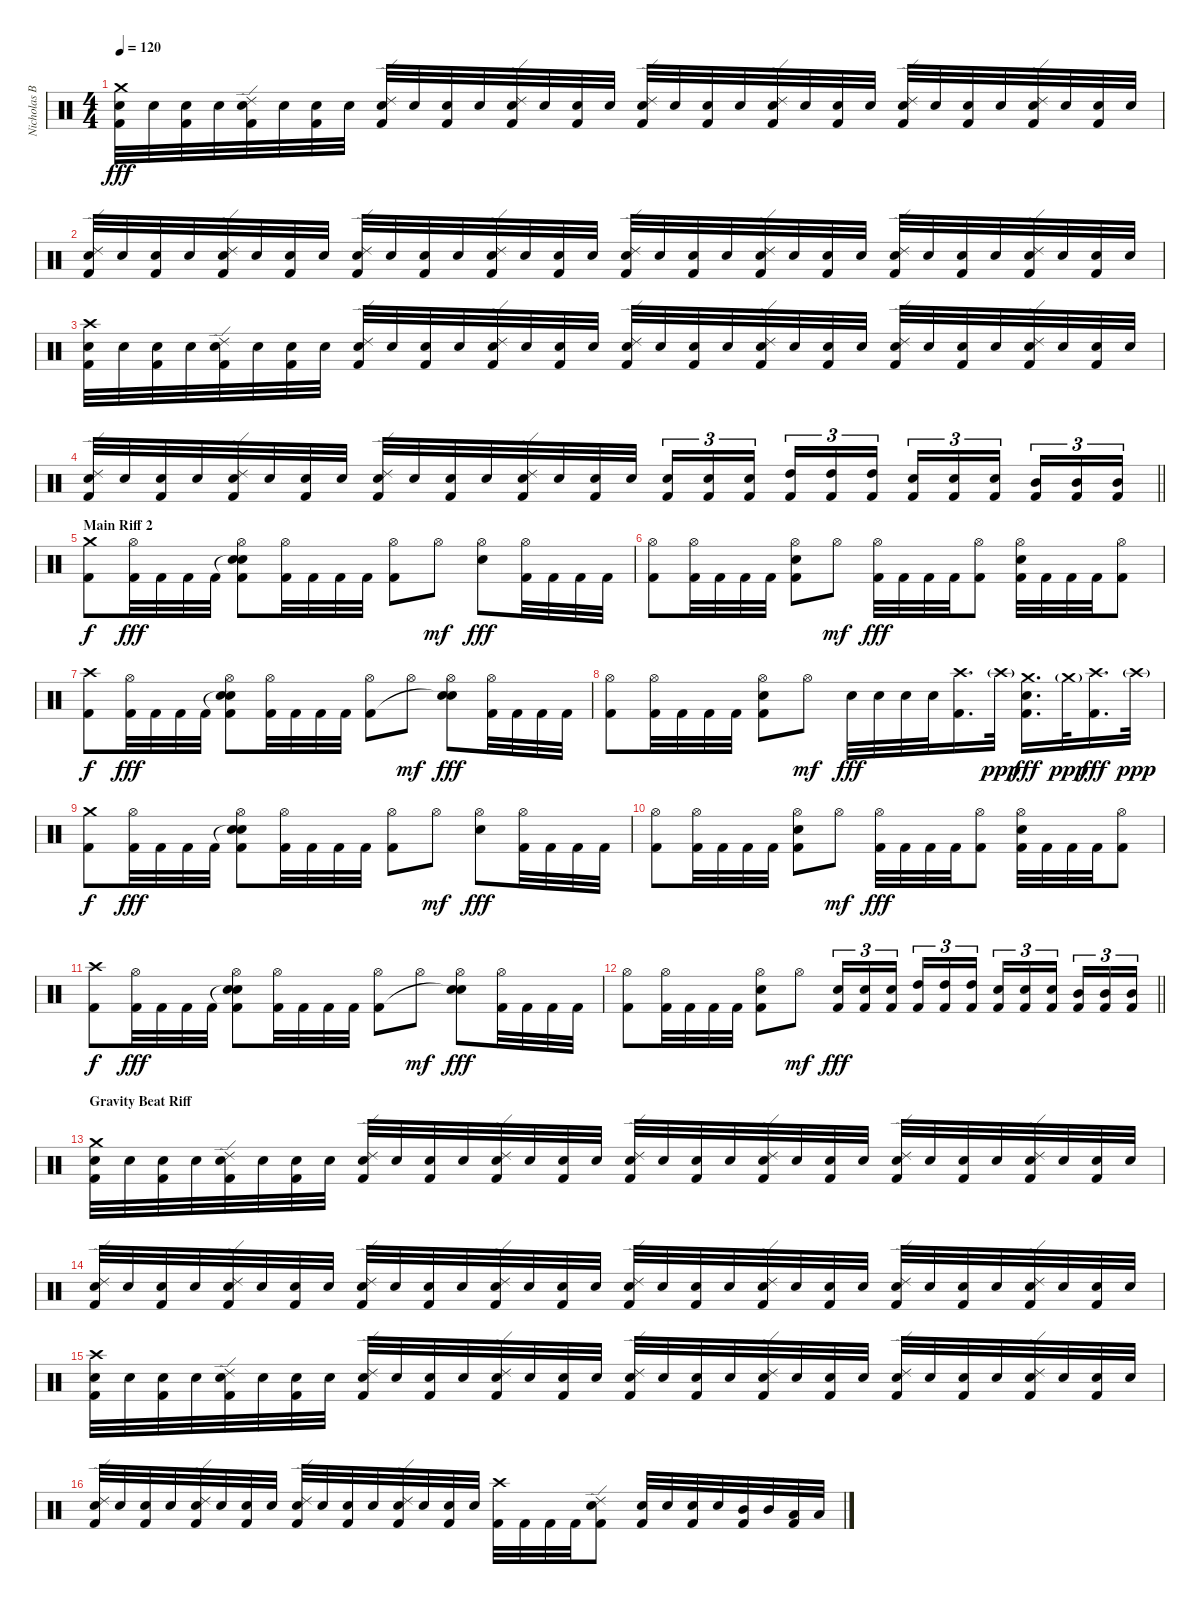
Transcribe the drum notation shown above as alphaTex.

\track ("Nicholas Barker" "Nicholas B") {instrument percussion}
\staff {score}
\articulation defaults
\ts (4 4)
\tempo 120
\clef neutral
\ks c
("Crash medium (hit)" "Snare (hit) 2" "Kick (hit) 2").32{dy fff} "Snare (hit) 2".32 ("Snare (hit) 2" "Kick (hit) 2").32 "Snare (hit) 2".32 ("Ride (edge) 2" "Snare (hit) 2" "Kick (hit) 2").32 "Snare (hit) 2".32 ("Snare (hit) 2" "Kick (hit) 2").32 "Snare (hit) 2".32 ("Ride (edge) 2" "Snare (hit) 2" "Kick (hit) 2").32 "Snare (hit) 2".32 ("Snare (hit) 2" "Kick (hit) 2").32 "Snare (hit) 2".32 ("Ride (edge) 2" "Snare (hit) 2" "Kick (hit) 2").32 "Snare (hit) 2".32 ("Snare (hit) 2" "Kick (hit) 2").32 "Snare (hit) 2".32 ("Ride (edge) 2" "Snare (hit) 2" "Kick (hit) 2").32 "Snare (hit) 2".32 ("Snare (hit) 2" "Kick (hit) 2").32 "Snare (hit) 2".32 ("Ride (edge) 2" "Snare (hit) 2" "Kick (hit) 2").32 "Snare (hit) 2".32 ("Snare (hit) 2" "Kick (hit) 2").32 "Snare (hit) 2".32 ("Ride (edge) 2" "Snare (hit) 2" "Kick (hit) 2").32 "Snare (hit) 2".32 ("Snare (hit) 2" "Kick (hit) 2").32 "Snare (hit) 2".32 ("Ride (edge) 2" "Snare (hit) 2" "Kick (hit) 2").32 "Snare (hit) 2".32 ("Snare (hit) 2" "Kick (hit) 2").32 "Snare (hit) 2".32 |
("Ride (edge) 2" "Snare (hit) 2" "Kick (hit) 2").32 "Snare (hit) 2".32 ("Snare (hit) 2" "Kick (hit) 2").32 "Snare (hit) 2".32 ("Ride (edge) 2" "Snare (hit) 2" "Kick (hit) 2").32 "Snare (hit) 2".32 ("Snare (hit) 2" "Kick (hit) 2").32 "Snare (hit) 2".32 ("Ride (edge) 2" "Snare (hit) 2" "Kick (hit) 2").32 "Snare (hit) 2".32 ("Snare (hit) 2" "Kick (hit) 2").32 "Snare (hit) 2".32 ("Ride (edge) 2" "Snare (hit) 2" "Kick (hit) 2").32 "Snare (hit) 2".32 ("Snare (hit) 2" "Kick (hit) 2").32 "Snare (hit) 2".32 ("Ride (edge) 2" "Snare (hit) 2" "Kick (hit) 2").32 "Snare (hit) 2".32 ("Snare (hit) 2" "Kick (hit) 2").32 "Snare (hit) 2".32 ("Ride (edge) 2" "Snare (hit) 2" "Kick (hit) 2").32 "Snare (hit) 2".32 ("Snare (hit) 2" "Kick (hit) 2").32 "Snare (hit) 2".32 ("Ride (edge) 2" "Snare (hit) 2" "Kick (hit) 2").32 "Snare (hit) 2".32 ("Snare (hit) 2" "Kick (hit) 2").32 "Snare (hit) 2".32 ("Ride (edge) 2" "Snare (hit) 2" "Kick (hit) 2").32 "Snare (hit) 2".32 ("Snare (hit) 2" "Kick (hit) 2").32 "Snare (hit) 2".32 |
("Crash high (hit)" "Snare (hit) 2" "Kick (hit) 2").32 "Snare (hit) 2".32 ("Snare (hit) 2" "Kick (hit) 2").32 "Snare (hit) 2".32 ("Ride (edge) 2" "Snare (hit) 2" "Kick (hit) 2").32 "Snare (hit) 2".32 ("Snare (hit) 2" "Kick (hit) 2").32 "Snare (hit) 2".32 ("Ride (edge) 2" "Snare (hit) 2" "Kick (hit) 2").32 "Snare (hit) 2".32 ("Snare (hit) 2" "Kick (hit) 2").32 "Snare (hit) 2".32 ("Ride (edge) 2" "Snare (hit) 2" "Kick (hit) 2").32 "Snare (hit) 2".32 ("Snare (hit) 2" "Kick (hit) 2").32 "Snare (hit) 2".32 ("Ride (edge) 2" "Snare (hit) 2" "Kick (hit) 2").32 "Snare (hit) 2".32 ("Snare (hit) 2" "Kick (hit) 2").32 "Snare (hit) 2".32 ("Ride (edge) 2" "Snare (hit) 2" "Kick (hit) 2").32 "Snare (hit) 2".32 ("Snare (hit) 2" "Kick (hit) 2").32 "Snare (hit) 2".32 ("Ride (edge) 2" "Snare (hit) 2" "Kick (hit) 2").32 "Snare (hit) 2".32 ("Snare (hit) 2" "Kick (hit) 2").32 "Snare (hit) 2".32 ("Ride (edge) 2" "Snare (hit) 2" "Kick (hit) 2").32 "Snare (hit) 2".32 ("Snare (hit) 2" "Kick (hit) 2").32 "Snare (hit) 2".32 |
\barLineRight lightlight
("Ride (edge) 2" "Snare (hit) 2" "Kick (hit) 2").32 "Snare (hit) 2".32 ("Snare (hit) 2" "Kick (hit) 2").32 "Snare (hit) 2".32 ("Ride (edge) 2" "Snare (hit) 2" "Kick (hit) 2").32 "Snare (hit) 2".32 ("Snare (hit) 2" "Kick (hit) 2").32 "Snare (hit) 2".32 ("Ride (edge) 2" "Snare (hit) 2" "Kick (hit) 2").32 "Snare (hit) 2".32 ("Snare (hit) 2" "Kick (hit) 2").32 "Snare (hit) 2".32 ("Ride (edge) 2" "Snare (hit) 2" "Kick (hit) 2").32 "Snare (hit) 2".32 ("Snare (hit) 2" "Kick (hit) 2").32 "Snare (hit) 2".32 ("Snare (hit) 2" "Kick (hit) 2").16{tu (3 2)} ("Snare (hit) 2" "Kick (hit) 2").16{tu (3 2)} ("Snare (hit) 2" "Kick (hit) 2").16{tu (3 2) beam splitsecondary} ("High Tom (hit)" "Kick (hit) 2").16{tu (3 2)} ("High Tom (hit)" "Kick (hit) 2").16{tu (3 2)} ("High Tom (hit)" "Kick (hit) 2").16{tu (3 2)} ("Snare (hit) 2" "Kick (hit) 2").16{tu (3 2)} ("Snare (hit) 2" "Kick (hit) 2").16{tu (3 2)} ("Snare (hit) 2" "Kick (hit) 2").16{tu (3 2) beam splitsecondary} ("Mid Tom (hit)" "Kick (hit) 2").16{tu (3 2)} ("Mid Tom (hit)" "Kick (hit) 2").16{tu (3 2)} ("Mid Tom (hit)" "Kick (hit) 2").16{tu (3 2)} |
\section ("" "Main Riff 2")
("Crash medium (hit)" "Kick (hit) 2").8{dy f} ("Hi-Hat (open)" "Kick (hit) 2").32{dy fff} "Kick (hit) 2".32 "Kick (hit) 2".32 "Kick (hit) 2".32 ("Snare (hit)"{t} "Hi-Hat (open)" "Snare (hit) 2" "Kick (hit) 2").8 ("Hi-Hat (open)" "Kick (hit) 2").32 "Kick (hit) 2".32 "Kick (hit) 2".32 "Kick (hit) 2".32 ("Hi-Hat (open)" "Kick (hit) 2").8 "Hi-Hat (open)".8{dy mf} ("Hi-Hat (open)" "Snare (hit) 2").8{dy fff} ("Hi-Hat (open)" "Kick (hit) 2").32 "Kick (hit) 2".32 "Kick (hit) 2".32 "Kick (hit) 2".32 |
("Hi-Hat (open)" "Kick (hit) 2").8 ("Hi-Hat (open)" "Kick (hit) 2").32 "Kick (hit) 2".32 "Kick (hit) 2".32 "Kick (hit) 2".32 ("Hi-Hat (open)" "Snare (hit) 2" "Kick (hit) 2").8 "Hi-Hat (open)".8{dy mf} ("Hi-Hat (open)" "Kick (hit) 2").32{dy fff} "Kick (hit) 2".32 "Kick (hit) 2".32 "Kick (hit) 2".32 ("Hi-Hat (open)" "Kick (hit) 2").8 ("Hi-Hat (open)" "Snare (hit) 2" "Kick (hit) 2").32 "Kick (hit) 2".32 "Kick (hit) 2".32 "Kick (hit) 2".32 ("Hi-Hat (open)" "Kick (hit) 2").8 |
("Crash high (hit)" "Kick (hit) 2").8{dy f} ("Hi-Hat (open)" "Kick (hit) 2").32{dy fff} "Kick (hit) 2".32 "Kick (hit) 2".32 "Kick (hit) 2".32 ("Snare (hit)"{t} "Hi-Hat (open)" "Snare (hit) 2" "Kick (hit) 2").8 ("Hi-Hat (open)" "Kick (hit) 2").32 "Kick (hit) 2".32 "Kick (hit) 2".32 "Kick (hit) 2".32 ("Hi-Hat (open)" "Kick (hit) 2").8 "Hi-Hat (open)".8{dy mf} ("Hi-Hat (open)" "Snare (hit)"{t} "Snare (hit) 2").8{dy fff} ("Hi-Hat (open)" "Kick (hit) 2").32 "Kick (hit) 2".32 "Kick (hit) 2".32 "Kick (hit) 2".32 |
("Hi-Hat (open)" "Kick (hit) 2").8 ("Hi-Hat (open)" "Kick (hit) 2").32 "Kick (hit) 2".32 "Kick (hit) 2".32 "Kick (hit) 2".32 ("Hi-Hat (open)" "Snare (hit) 2" "Kick (hit) 2").8 "Hi-Hat (open)".8{dy mf} "Snare (hit) 2".32{dy fff} "Snare (hit) 2".32 "Snare (hit) 2".32 "Snare (hit) 2".32 ("Crash high (hit)" "Kick (hit) 2").16{d} "Crash high (hit)"{g}.32{dy ppp} ("Crash medium (hit)" "Snare (hit) 2" "Kick (hit) 2").16{d dy fff} "Crash medium (hit)"{g}.32{dy ppp} ("Crash high (hit)" "Kick (hit) 2").16{d dy fff} "Crash high (hit)"{g}.32{dy ppp} |
("Crash medium (hit)" "Kick (hit) 2").8{dy f} ("Hi-Hat (open)" "Kick (hit) 2").32{dy fff} "Kick (hit) 2".32 "Kick (hit) 2".32 "Kick (hit) 2".32 ("Snare (hit)"{t} "Hi-Hat (open)" "Snare (hit) 2" "Kick (hit) 2").8 ("Hi-Hat (open)" "Kick (hit) 2").32 "Kick (hit) 2".32 "Kick (hit) 2".32 "Kick (hit) 2".32 ("Hi-Hat (open)" "Kick (hit) 2").8 "Hi-Hat (open)".8{dy mf} ("Hi-Hat (open)" "Snare (hit) 2").8{dy fff} ("Hi-Hat (open)" "Kick (hit) 2").32 "Kick (hit) 2".32 "Kick (hit) 2".32 "Kick (hit) 2".32 |
("Hi-Hat (open)" "Kick (hit) 2").8 ("Hi-Hat (open)" "Kick (hit) 2").32 "Kick (hit) 2".32 "Kick (hit) 2".32 "Kick (hit) 2".32 ("Hi-Hat (open)" "Snare (hit) 2" "Kick (hit) 2").8 "Hi-Hat (open)".8{dy mf} ("Hi-Hat (open)" "Kick (hit) 2").32{dy fff} "Kick (hit) 2".32 "Kick (hit) 2".32 "Kick (hit) 2".32 ("Hi-Hat (open)" "Kick (hit) 2").8 ("Hi-Hat (open)" "Snare (hit) 2" "Kick (hit) 2").32 "Kick (hit) 2".32 "Kick (hit) 2".32 "Kick (hit) 2".32 ("Hi-Hat (open)" "Kick (hit) 2").8 |
("Crash high (hit)" "Kick (hit) 2").8{dy f} ("Hi-Hat (open)" "Kick (hit) 2").32{dy fff} "Kick (hit) 2".32 "Kick (hit) 2".32 "Kick (hit) 2".32 ("Snare (hit)"{t} "Hi-Hat (open)" "Snare (hit) 2" "Kick (hit) 2").8 ("Hi-Hat (open)" "Kick (hit) 2").32 "Kick (hit) 2".32 "Kick (hit) 2".32 "Kick (hit) 2".32 ("Hi-Hat (open)" "Kick (hit) 2").8 "Hi-Hat (open)".8{dy mf} ("Hi-Hat (open)" "Snare (hit)"{t} "Snare (hit) 2").8{dy fff} ("Hi-Hat (open)" "Kick (hit) 2").32 "Kick (hit) 2".32 "Kick (hit) 2".32 "Kick (hit) 2".32 |
\barLineRight lightlight
("Hi-Hat (open)" "Kick (hit) 2").8 ("Hi-Hat (open)" "Kick (hit) 2").32 "Kick (hit) 2".32 "Kick (hit) 2".32 "Kick (hit) 2".32 ("Hi-Hat (open)" "Snare (hit) 2" "Kick (hit) 2").8 "Hi-Hat (open)".8{dy mf} ("Snare (hit) 2" "Kick (hit) 2").16{tu (3 2) dy fff} ("Snare (hit) 2" "Kick (hit) 2").16{tu (3 2)} ("Snare (hit) 2" "Kick (hit) 2").16{tu (3 2) beam splitsecondary} ("High Tom (hit)" "Kick (hit) 2").16{tu (3 2)} ("High Tom (hit)" "Kick (hit) 2").16{tu (3 2)} ("High Tom (hit)" "Kick (hit) 2").16{tu (3 2)} ("Snare (hit) 2" "Kick (hit) 2").16{tu (3 2)} ("Snare (hit) 2" "Kick (hit) 2").16{tu (3 2)} ("Snare (hit) 2" "Kick (hit) 2").16{tu (3 2) beam splitsecondary} ("Mid Tom (hit)" "Kick (hit) 2").16{tu (3 2)} ("Mid Tom (hit)" "Kick (hit) 2").16{tu (3 2)} ("Mid Tom (hit)" "Kick (hit) 2").16{tu (3 2)} |
\section ("" "Gravity Beat Riff")
("Crash medium (hit)" "Snare (hit) 2" "Kick (hit) 2").32 "Snare (hit) 2".32 ("Snare (hit) 2" "Kick (hit) 2").32 "Snare (hit) 2".32 ("Ride (edge) 2" "Snare (hit) 2" "Kick (hit) 2").32 "Snare (hit) 2".32 ("Snare (hit) 2" "Kick (hit) 2").32 "Snare (hit) 2".32 ("Ride (edge) 2" "Snare (hit) 2" "Kick (hit) 2").32 "Snare (hit) 2".32 ("Snare (hit) 2" "Kick (hit) 2").32 "Snare (hit) 2".32 ("Ride (edge) 2" "Snare (hit) 2" "Kick (hit) 2").32 "Snare (hit) 2".32 ("Snare (hit) 2" "Kick (hit) 2").32 "Snare (hit) 2".32 ("Ride (edge) 2" "Snare (hit) 2" "Kick (hit) 2").32 "Snare (hit) 2".32 ("Snare (hit) 2" "Kick (hit) 2").32 "Snare (hit) 2".32 ("Ride (edge) 2" "Snare (hit) 2" "Kick (hit) 2").32 "Snare (hit) 2".32 ("Snare (hit) 2" "Kick (hit) 2").32 "Snare (hit) 2".32 ("Ride (edge) 2" "Snare (hit) 2" "Kick (hit) 2").32 "Snare (hit) 2".32 ("Snare (hit) 2" "Kick (hit) 2").32 "Snare (hit) 2".32 ("Ride (edge) 2" "Snare (hit) 2" "Kick (hit) 2").32 "Snare (hit) 2".32 ("Snare (hit) 2" "Kick (hit) 2").32 "Snare (hit) 2".32 |
("Ride (edge) 2" "Snare (hit) 2" "Kick (hit) 2").32 "Snare (hit) 2".32 ("Snare (hit) 2" "Kick (hit) 2").32 "Snare (hit) 2".32 ("Ride (edge) 2" "Snare (hit) 2" "Kick (hit) 2").32 "Snare (hit) 2".32 ("Snare (hit) 2" "Kick (hit) 2").32 "Snare (hit) 2".32 ("Ride (edge) 2" "Snare (hit) 2" "Kick (hit) 2").32 "Snare (hit) 2".32 ("Snare (hit) 2" "Kick (hit) 2").32 "Snare (hit) 2".32 ("Ride (edge) 2" "Snare (hit) 2" "Kick (hit) 2").32 "Snare (hit) 2".32 ("Snare (hit) 2" "Kick (hit) 2").32 "Snare (hit) 2".32 ("Ride (edge) 2" "Snare (hit) 2" "Kick (hit) 2").32 "Snare (hit) 2".32 ("Snare (hit) 2" "Kick (hit) 2").32 "Snare (hit) 2".32 ("Ride (edge) 2" "Snare (hit) 2" "Kick (hit) 2").32 "Snare (hit) 2".32 ("Snare (hit) 2" "Kick (hit) 2").32 "Snare (hit) 2".32 ("Ride (edge) 2" "Snare (hit) 2" "Kick (hit) 2").32 "Snare (hit) 2".32 ("Snare (hit) 2" "Kick (hit) 2").32 "Snare (hit) 2".32 ("Ride (edge) 2" "Snare (hit) 2" "Kick (hit) 2").32 "Snare (hit) 2".32 ("Snare (hit) 2" "Kick (hit) 2").32 "Snare (hit) 2".32 |
("Crash high (hit)" "Snare (hit) 2" "Kick (hit) 2").32 "Snare (hit) 2".32 ("Snare (hit) 2" "Kick (hit) 2").32 "Snare (hit) 2".32 ("Ride (edge) 2" "Snare (hit) 2" "Kick (hit) 2").32 "Snare (hit) 2".32 ("Snare (hit) 2" "Kick (hit) 2").32 "Snare (hit) 2".32 ("Ride (edge) 2" "Snare (hit) 2" "Kick (hit) 2").32 "Snare (hit) 2".32 ("Snare (hit) 2" "Kick (hit) 2").32 "Snare (hit) 2".32 ("Ride (edge) 2" "Snare (hit) 2" "Kick (hit) 2").32 "Snare (hit) 2".32 ("Snare (hit) 2" "Kick (hit) 2").32 "Snare (hit) 2".32 ("Ride (edge) 2" "Snare (hit) 2" "Kick (hit) 2").32 "Snare (hit) 2".32 ("Snare (hit) 2" "Kick (hit) 2").32 "Snare (hit) 2".32 ("Ride (edge) 2" "Snare (hit) 2" "Kick (hit) 2").32 "Snare (hit) 2".32 ("Snare (hit) 2" "Kick (hit) 2").32 "Snare (hit) 2".32 ("Ride (edge) 2" "Snare (hit) 2" "Kick (hit) 2").32 "Snare (hit) 2".32 ("Snare (hit) 2" "Kick (hit) 2").32 "Snare (hit) 2".32 ("Ride (edge) 2" "Snare (hit) 2" "Kick (hit) 2").32 "Snare (hit) 2".32 ("Snare (hit) 2" "Kick (hit) 2").32 "Snare (hit) 2".32 |
("Ride (edge) 2" "Snare (hit) 2" "Kick (hit) 2").32 "Snare (hit) 2".32 ("Snare (hit) 2" "Kick (hit) 2").32 "Snare (hit) 2".32 ("Ride (edge) 2" "Snare (hit) 2" "Kick (hit) 2").32 "Snare (hit) 2".32 ("Snare (hit) 2" "Kick (hit) 2").32 "Snare (hit) 2".32 ("Ride (edge) 2" "Snare (hit) 2" "Kick (hit) 2").32 "Snare (hit) 2".32 ("Snare (hit) 2" "Kick (hit) 2").32 "Snare (hit) 2".32 ("Ride (edge) 2" "Snare (hit) 2" "Kick (hit) 2").32 "Snare (hit) 2".32 ("Snare (hit) 2" "Kick (hit) 2").32 "Snare (hit) 2".32 ("Crash high (hit)" "Kick (hit) 2").32 "Kick (hit) 2".32 "Kick (hit) 2".32 "Kick (hit) 2".32 ("Ride (edge) 2" "Snare (hit) 2" "Kick (hit) 2").8 ("Snare (hit) 2" "Kick (hit) 2").32 "Snare (hit) 2".32 ("Snare (hit) 2" "Kick (hit) 2").32 "Snare (hit) 2".32 ("Mid Tom (hit)" "Kick (hit) 2").32 "Mid Tom (hit)".32 ("Low Tom (hit)" "Kick (hit) 2").32 "Low Tom (hit)".32
